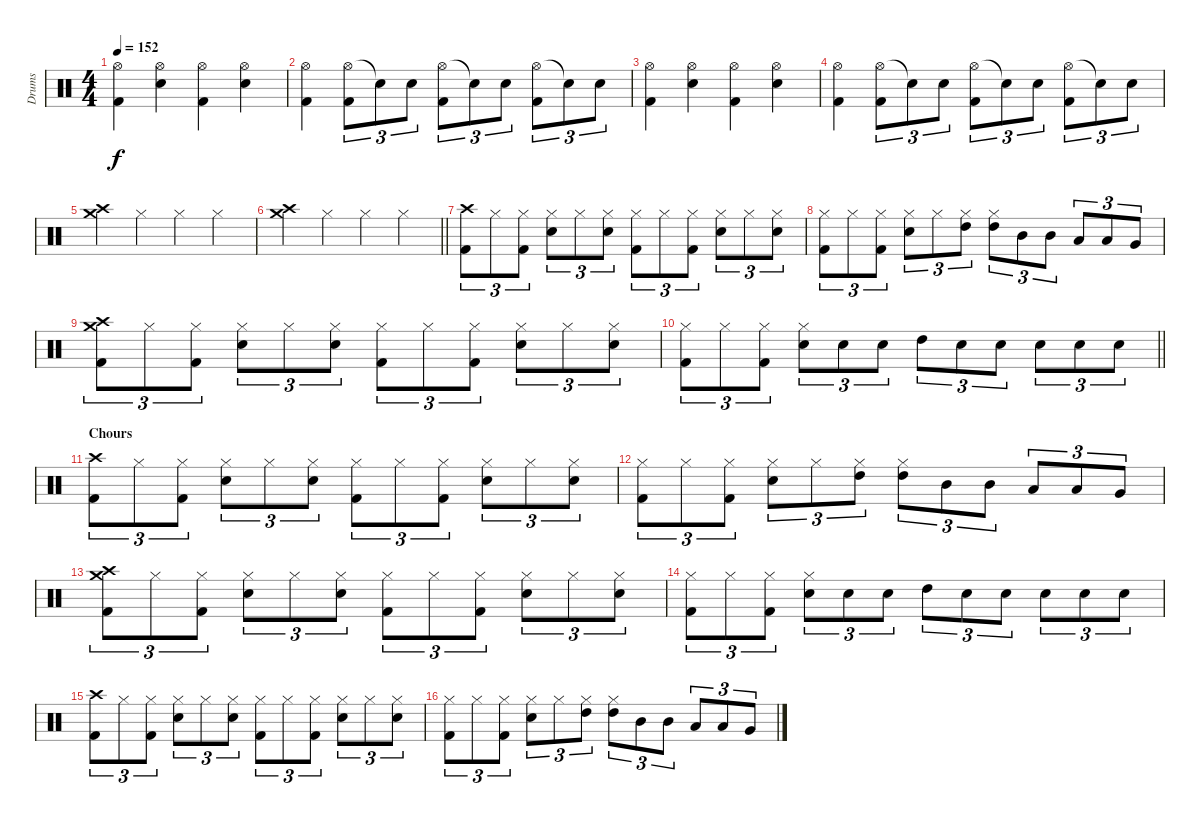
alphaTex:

\track ("Drums" "Drums") {instrument percussion}
\staff {score}
\articulation defaults
\ts (4 4)
\tempo 152
\clef neutral
\ks c
("Hi-Hat (open)" "Kick (hit) 2").4{dy f} ("Hi-Hat (open)" "Snare (hit) 2").4 ("Hi-Hat (open)" "Kick (hit) 2").4 ("Hi-Hat (open)" "Snare (hit) 2").4 |
("Hi-Hat (open)" "Kick (hit) 2").4 ("Hi-Hat (open)" "Kick (hit) 2").8{tu (3 2)} "Snare (hit)"{t}.8{tu (3 2)} "Snare (hit) 2".8{tu (3 2)} ("Hi-Hat (open)" "Kick (hit) 2").8{tu (3 2)} "Snare (hit)"{t}.8{tu (3 2)} "Snare (hit) 2".8{tu (3 2)} ("Hi-Hat (open)" "Kick (hit) 2").8{tu (3 2)} "Snare (hit) 2"{t}.8{tu (3 2)} "Snare (hit) 2".8{tu (3 2)} |
("Hi-Hat (open)" "Kick (hit) 2").4 ("Hi-Hat (open)" "Snare (hit) 2").4 ("Hi-Hat (open)" "Kick (hit) 2").4 ("Hi-Hat (open)" "Snare (hit) 2").4 |
("Hi-Hat (open)" "Kick (hit) 2").4 ("Hi-Hat (open)" "Kick (hit) 2").8{tu (3 2)} "Snare (hit)"{t}.8{tu (3 2)} "Snare (hit) 2".8{tu (3 2)} ("Hi-Hat (open)" "Kick (hit) 2").8{tu (3 2)} "Snare (hit)"{t}.8{tu (3 2)} "Snare (hit) 2".8{tu (3 2)} ("Hi-Hat (open)" "Kick (hit) 2").8{tu (3 2)} "Snare (hit) 2"{t}.8{tu (3 2)} "Snare (hit) 2".8{tu (3 2)} |
("Crash medium (hit)" "Crash high (hit)").4 "Hi-Hat (closed)".4 "Hi-Hat (closed)".4 "Hi-Hat (closed)".4 |
\barLineRight lightlight
("Crash medium (hit)" "Crash high (hit)").4 "Hi-Hat (closed)".4 "Hi-Hat (closed)".4 "Hi-Hat (closed)".4 |
("Crash high (hit)" "Kick (hit) 2").8{tu (3 2)} "Hi-Hat (closed)".8{tu (3 2)} ("Hi-Hat (closed)" "Kick (hit) 2").8{tu (3 2)} ("Hi-Hat (closed)" "Snare (hit) 2").8{tu (3 2)} "Hi-Hat (closed)".8{tu (3 2)} ("Hi-Hat (closed)" "Snare (hit) 2").8{tu (3 2)} ("Hi-Hat (closed)" "Kick (hit) 2").8{tu (3 2)} "Hi-Hat (closed)".8{tu (3 2)} ("Hi-Hat (closed)" "Kick (hit) 2").8{tu (3 2)} ("Hi-Hat (closed)" "Snare (hit) 2").8{tu (3 2)} "Hi-Hat (closed)".8{tu (3 2)} ("Hi-Hat (closed)" "Snare (hit) 2").8{tu (3 2)} |
("Hi-Hat (closed)" "Kick (hit) 2").8{tu (3 2)} "Hi-Hat (closed)".8{tu (3 2)} ("Hi-Hat (closed)" "Kick (hit) 2").8{tu (3 2)} ("Hi-Hat (closed)" "Snare (hit) 2").8{tu (3 2)} "Hi-Hat (closed)".8{tu (3 2)} ("Hi-Hat (closed)" "High Tom (hit)").8{tu (3 2)} ("Hi-Hat (closed)" "High Tom (hit)").8{tu (3 2)} "Mid Tom (hit)".8{tu (3 2)} "Mid Tom (hit)".8{tu (3 2)} "Low Tom (hit)".8{tu (3 2)} "Low Tom (hit)".8{tu (3 2)} "Very Low Tom (hit)".8{tu (3 2)} |
("Crash high (hit)" "Crash medium (hit)" "Kick (hit) 2").8{tu (3 2)} "Hi-Hat (closed)".8{tu (3 2)} ("Hi-Hat (closed)" "Kick (hit) 2").8{tu (3 2)} ("Hi-Hat (closed)" "Snare (hit) 2").8{tu (3 2)} "Hi-Hat (closed)".8{tu (3 2)} ("Hi-Hat (closed)" "Snare (hit) 2").8{tu (3 2)} ("Hi-Hat (closed)" "Kick (hit) 2").8{tu (3 2)} "Hi-Hat (closed)".8{tu (3 2)} ("Hi-Hat (closed)" "Kick (hit) 2").8{tu (3 2)} ("Hi-Hat (closed)" "Snare (hit) 2").8{tu (3 2)} "Hi-Hat (closed)".8{tu (3 2)} ("Hi-Hat (closed)" "Snare (hit) 2").8{tu (3 2)} |
\barLineRight lightlight
("Hi-Hat (closed)" "Kick (hit) 2").8{tu (3 2)} "Hi-Hat (closed)".8{tu (3 2)} ("Hi-Hat (closed)" "Kick (hit) 2").8{tu (3 2)} ("Hi-Hat (closed)" "Snare (hit) 2").8{tu (3 2)} "Snare (hit) 2".8{tu (3 2)} "Snare (hit) 2".8{tu (3 2)} "High Tom (hit)".8{tu (3 2)} "Snare (hit) 2".8{tu (3 2)} "Snare (hit) 2".8{tu (3 2)} "Snare (hit) 2".8{tu (3 2)} "Snare (hit) 2".8{tu (3 2)} "Snare (hit) 2".8{tu (3 2)} |
\section ("" "Chours")
("Crash high (hit)" "Kick (hit) 2").8{tu (3 2)} "Hi-Hat (closed)".8{tu (3 2)} ("Hi-Hat (closed)" "Kick (hit) 2").8{tu (3 2)} ("Hi-Hat (closed)" "Snare (hit) 2").8{tu (3 2)} "Hi-Hat (closed)".8{tu (3 2)} ("Hi-Hat (closed)" "Snare (hit) 2").8{tu (3 2)} ("Hi-Hat (closed)" "Kick (hit) 2").8{tu (3 2)} "Hi-Hat (closed)".8{tu (3 2)} ("Hi-Hat (closed)" "Kick (hit) 2").8{tu (3 2)} ("Hi-Hat (closed)" "Snare (hit) 2").8{tu (3 2)} "Hi-Hat (closed)".8{tu (3 2)} ("Hi-Hat (closed)" "Snare (hit) 2").8{tu (3 2)} |
("Hi-Hat (closed)" "Kick (hit) 2").8{tu (3 2)} "Hi-Hat (closed)".8{tu (3 2)} ("Hi-Hat (closed)" "Kick (hit) 2").8{tu (3 2)} ("Hi-Hat (closed)" "Snare (hit) 2").8{tu (3 2)} "Hi-Hat (closed)".8{tu (3 2)} ("Hi-Hat (closed)" "High Tom (hit)").8{tu (3 2)} ("Hi-Hat (closed)" "High Tom (hit)").8{tu (3 2)} "Mid Tom (hit)".8{tu (3 2)} "Mid Tom (hit)".8{tu (3 2)} "Low Tom (hit)".8{tu (3 2)} "Low Tom (hit)".8{tu (3 2)} "Very Low Tom (hit)".8{tu (3 2)} |
("Crash high (hit)" "Crash medium (hit)" "Kick (hit) 2").8{tu (3 2)} "Hi-Hat (closed)".8{tu (3 2)} ("Hi-Hat (closed)" "Kick (hit) 2").8{tu (3 2)} ("Hi-Hat (closed)" "Snare (hit) 2").8{tu (3 2)} "Hi-Hat (closed)".8{tu (3 2)} ("Hi-Hat (closed)" "Snare (hit) 2").8{tu (3 2)} ("Hi-Hat (closed)" "Kick (hit) 2").8{tu (3 2)} "Hi-Hat (closed)".8{tu (3 2)} ("Hi-Hat (closed)" "Kick (hit) 2").8{tu (3 2)} ("Hi-Hat (closed)" "Snare (hit) 2").8{tu (3 2)} "Hi-Hat (closed)".8{tu (3 2)} ("Hi-Hat (closed)" "Snare (hit) 2").8{tu (3 2)} |
("Hi-Hat (closed)" "Kick (hit) 2").8{tu (3 2)} "Hi-Hat (closed)".8{tu (3 2)} ("Hi-Hat (closed)" "Kick (hit) 2").8{tu (3 2)} ("Hi-Hat (closed)" "Snare (hit) 2").8{tu (3 2)} "Snare (hit) 2".8{tu (3 2)} "Snare (hit) 2".8{tu (3 2)} "High Tom (hit)".8{tu (3 2)} "Snare (hit) 2".8{tu (3 2)} "Snare (hit) 2".8{tu (3 2)} "Snare (hit) 2".8{tu (3 2)} "Snare (hit) 2".8{tu (3 2)} "Snare (hit) 2".8{tu (3 2)} |
("Crash high (hit)" "Kick (hit) 2").8{tu (3 2)} "Hi-Hat (closed)".8{tu (3 2)} ("Hi-Hat (closed)" "Kick (hit) 2").8{tu (3 2)} ("Hi-Hat (closed)" "Snare (hit) 2").8{tu (3 2)} "Hi-Hat (closed)".8{tu (3 2)} ("Hi-Hat (closed)" "Snare (hit) 2").8{tu (3 2)} ("Hi-Hat (closed)" "Kick (hit) 2").8{tu (3 2)} "Hi-Hat (closed)".8{tu (3 2)} ("Hi-Hat (closed)" "Kick (hit) 2").8{tu (3 2)} ("Hi-Hat (closed)" "Snare (hit) 2").8{tu (3 2)} "Hi-Hat (closed)".8{tu (3 2)} ("Hi-Hat (closed)" "Snare (hit) 2").8{tu (3 2)} |
("Hi-Hat (closed)" "Kick (hit) 2").8{tu (3 2)} "Hi-Hat (closed)".8{tu (3 2)} ("Hi-Hat (closed)" "Kick (hit) 2").8{tu (3 2)} ("Hi-Hat (closed)" "Snare (hit) 2").8{tu (3 2)} "Hi-Hat (closed)".8{tu (3 2)} ("Hi-Hat (closed)" "High Tom (hit)").8{tu (3 2)} ("Hi-Hat (closed)" "High Tom (hit)").8{tu (3 2)} "Mid Tom (hit)".8{tu (3 2)} "Mid Tom (hit)".8{tu (3 2)} "Low Tom (hit)".8{tu (3 2)} "Low Tom (hit)".8{tu (3 2)} "Very Low Tom (hit)".8{tu (3 2)}
